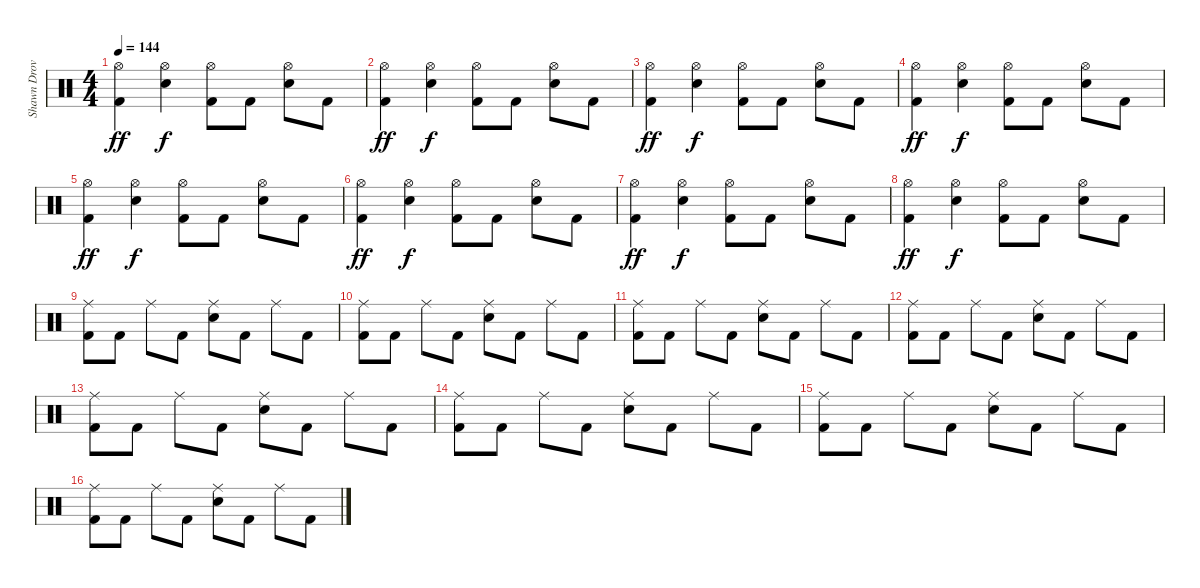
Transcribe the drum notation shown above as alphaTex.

\track ("Shawn Drover" "Shawn Drov") {instrument percussion}
\staff {score}
\articulation defaults
\ts (4 4)
\tempo 144
\clef neutral
\ks c
("Hi-Hat (open)" "Kick (hit) 2").4{dy ff} ("Hi-Hat (open)" "Electric Snare (hit)").4{dy f} ("Hi-Hat (open)" "Kick (hit) 2").8 "Kick (hit) 2".8 ("Hi-Hat (open)" "Electric Snare (hit)").8 "Kick (hit) 2".8 |
("Hi-Hat (open)" "Kick (hit) 2").4{dy ff} ("Hi-Hat (open)" "Electric Snare (hit)").4{dy f} ("Hi-Hat (open)" "Kick (hit) 2").8 "Kick (hit) 2".8 ("Hi-Hat (open)" "Electric Snare (hit)").8 "Kick (hit) 2".8 |
("Hi-Hat (open)" "Kick (hit) 2").4{dy ff} ("Hi-Hat (open)" "Electric Snare (hit)").4{dy f} ("Hi-Hat (open)" "Kick (hit) 2").8 "Kick (hit) 2".8 ("Hi-Hat (open)" "Electric Snare (hit)").8 "Kick (hit) 2".8 |
("Hi-Hat (open)" "Kick (hit) 2").4{dy ff} ("Hi-Hat (open)" "Electric Snare (hit)").4{dy f} ("Hi-Hat (open)" "Kick (hit) 2").8 "Kick (hit) 2".8 ("Hi-Hat (open)" "Electric Snare (hit)").8 "Kick (hit) 2".8 |
("Hi-Hat (open)" "Kick (hit) 2").4{dy ff} ("Hi-Hat (open)" "Electric Snare (hit)").4{dy f} ("Hi-Hat (open)" "Kick (hit) 2").8 "Kick (hit) 2".8 ("Hi-Hat (open)" "Electric Snare (hit)").8 "Kick (hit) 2".8 |
("Hi-Hat (open)" "Kick (hit) 2").4{dy ff} ("Hi-Hat (open)" "Electric Snare (hit)").4{dy f} ("Hi-Hat (open)" "Kick (hit) 2").8 "Kick (hit) 2".8 ("Hi-Hat (open)" "Electric Snare (hit)").8 "Kick (hit) 2".8 |
("Hi-Hat (open)" "Kick (hit) 2").4{dy ff} ("Hi-Hat (open)" "Electric Snare (hit)").4{dy f} ("Hi-Hat (open)" "Kick (hit) 2").8 "Kick (hit) 2".8 ("Hi-Hat (open)" "Electric Snare (hit)").8 "Kick (hit) 2".8 |
("Hi-Hat (open)" "Kick (hit) 2").4{dy ff} ("Hi-Hat (open)" "Electric Snare (hit)").4{dy f} ("Hi-Hat (open)" "Kick (hit) 2").8 "Kick (hit) 2".8 ("Hi-Hat (open)" "Electric Snare (hit)").8 "Kick (hit) 2".8 |
("Ride (middle)" "Kick (hit) 2").8 "Kick (hit) 2".8 "Ride (middle)".8 "Kick (hit) 2".8 ("Ride (middle)" "Electric Snare (hit)").8 "Kick (hit) 2".8 "Ride (middle)".8 "Kick (hit) 2".8 |
("Ride (middle)" "Kick (hit) 2").8 "Kick (hit) 2".8 "Ride (middle)".8 "Kick (hit) 2".8 ("Ride (middle)" "Electric Snare (hit)").8 "Kick (hit) 2".8 "Ride (middle)".8 "Kick (hit) 2".8 |
("Ride (middle)" "Kick (hit) 2").8 "Kick (hit) 2".8 "Ride (middle)".8 "Kick (hit) 2".8 ("Ride (middle)" "Electric Snare (hit)").8 "Kick (hit) 2".8 "Ride (middle)".8 "Kick (hit) 2".8 |
("Ride (middle)" "Kick (hit) 2").8 "Kick (hit) 2".8 "Ride (middle)".8 "Kick (hit) 2".8 ("Ride (middle)" "Electric Snare (hit)").8 "Kick (hit) 2".8 "Ride (middle)".8 "Kick (hit) 2".8 |
("Ride (middle)" "Kick (hit) 2").8 "Kick (hit) 2".8 "Ride (middle)".8 "Kick (hit) 2".8 ("Ride (middle)" "Electric Snare (hit)").8 "Kick (hit) 2".8 "Ride (middle)".8 "Kick (hit) 2".8 |
("Ride (middle)" "Kick (hit) 2").8 "Kick (hit) 2".8 "Ride (middle)".8 "Kick (hit) 2".8 ("Ride (middle)" "Electric Snare (hit)").8 "Kick (hit) 2".8 "Ride (middle)".8 "Kick (hit) 2".8 |
("Ride (middle)" "Kick (hit) 2").8 "Kick (hit) 2".8 "Ride (middle)".8 "Kick (hit) 2".8 ("Ride (middle)" "Electric Snare (hit)").8 "Kick (hit) 2".8 "Ride (middle)".8 "Kick (hit) 2".8 |
("Ride (middle)" "Kick (hit) 2").8 "Kick (hit) 2".8 "Ride (middle)".8 "Kick (hit) 2".8 ("Ride (middle)" "Electric Snare (hit)").8 "Kick (hit) 2".8 "Ride (middle)".8 "Kick (hit) 2".8
